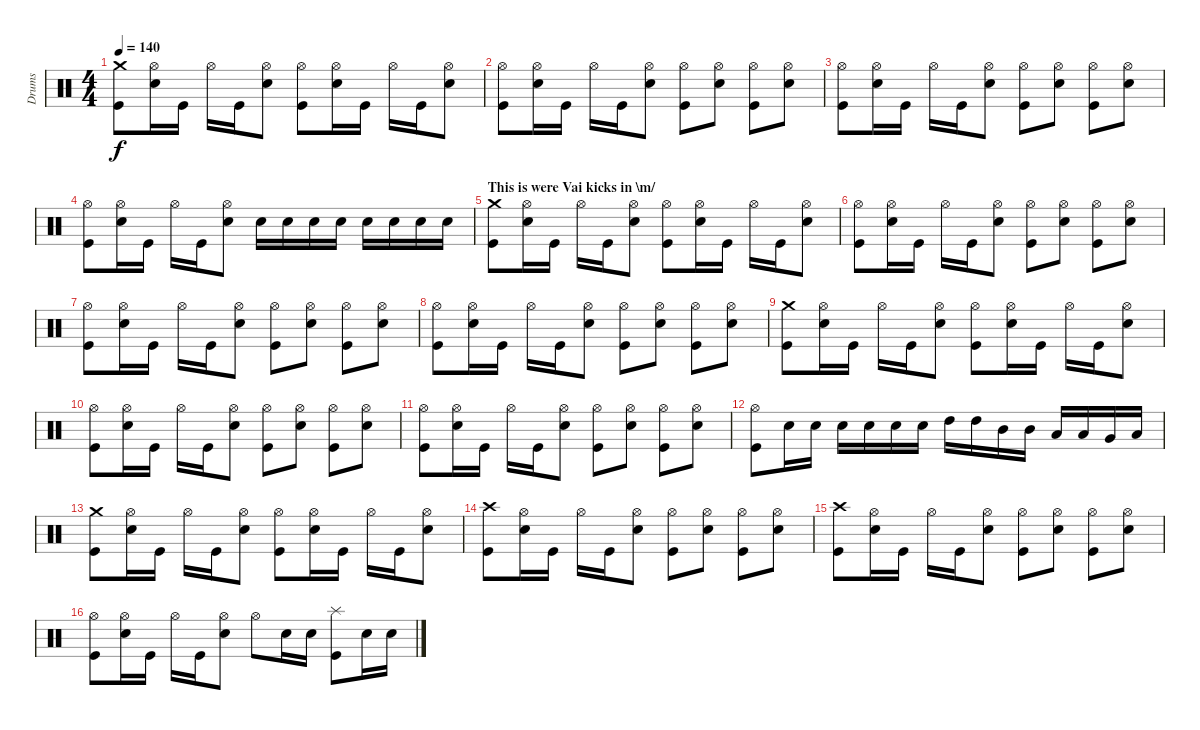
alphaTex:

\track ("Drums" "Drums") {instrument percussion}
\staff {score}
\articulation defaults
\ts (4 4)
\tempo 140
\clef neutral
\ks c
("Crash medium (hit)" "Kick (hit)").8{dy f} ("Hi-Hat (open)" "Snare (hit) 2").16 "Kick (hit)".16 "Hi-Hat (open)".16 "Kick (hit)".16 ("Hi-Hat (open)" "Snare (hit) 2").8 ("Hi-Hat (open)" "Kick (hit)").8 ("Hi-Hat (open)" "Snare (hit) 2").16 "Kick (hit)".16 "Hi-Hat (open)".16 "Kick (hit)".16 ("Hi-Hat (open)" "Snare (hit) 2").8 |
("Hi-Hat (open)" "Kick (hit)").8 ("Hi-Hat (open)" "Snare (hit) 2").16 "Kick (hit)".16 "Hi-Hat (open)".16 "Kick (hit)".16 ("Hi-Hat (open)" "Snare (hit) 2").8 ("Hi-Hat (open)" "Kick (hit)").8 ("Hi-Hat (open)" "Snare (hit) 2").8 ("Hi-Hat (open)" "Kick (hit)").8 ("Hi-Hat (open)" "Snare (hit) 2").8 |
("Hi-Hat (open)" "Kick (hit)").8 ("Hi-Hat (open)" "Snare (hit) 2").16 "Kick (hit)".16 "Hi-Hat (open)".16 "Kick (hit)".16 ("Hi-Hat (open)" "Snare (hit) 2").8 ("Hi-Hat (open)" "Kick (hit)").8 ("Hi-Hat (open)" "Snare (hit) 2").8 ("Hi-Hat (open)" "Kick (hit)").8 ("Hi-Hat (open)" "Snare (hit) 2").8 |
("Hi-Hat (open)" "Kick (hit)").8 ("Hi-Hat (open)" "Snare (hit) 2").16 "Kick (hit)".16 "Hi-Hat (open)".16 "Kick (hit)".16 ("Hi-Hat (open)" "Snare (hit) 2").8 "Snare (hit) 2".16 "Snare (hit) 2".16 "Snare (hit) 2".16 "Snare (hit) 2".16 "Snare (hit) 2".16 "Snare (hit) 2".16 "Snare (hit) 2".16 "Snare (hit) 2".16 |
\section ("" "This is were Vai kicks in \\m/")
("Crash medium (hit)" "Kick (hit)").8 ("Hi-Hat (open)" "Snare (hit) 2").16 "Kick (hit)".16 "Hi-Hat (open)".16 "Kick (hit)".16 ("Hi-Hat (open)" "Snare (hit) 2").8 ("Hi-Hat (open)" "Kick (hit)").8 ("Hi-Hat (open)" "Snare (hit) 2").16 "Kick (hit)".16 "Hi-Hat (open)".16 "Kick (hit)".16 ("Hi-Hat (open)" "Snare (hit) 2").8 |
("Hi-Hat (open)" "Kick (hit)").8 ("Hi-Hat (open)" "Snare (hit) 2").16 "Kick (hit)".16 "Hi-Hat (open)".16 "Kick (hit)".16 ("Hi-Hat (open)" "Snare (hit) 2").8 ("Hi-Hat (open)" "Kick (hit)").8 ("Hi-Hat (open)" "Snare (hit) 2").8 ("Hi-Hat (open)" "Kick (hit)").8 ("Hi-Hat (open)" "Snare (hit) 2").8 |
("Hi-Hat (open)" "Kick (hit)").8 ("Hi-Hat (open)" "Snare (hit) 2").16 "Kick (hit)".16 "Hi-Hat (open)".16 "Kick (hit)".16 ("Hi-Hat (open)" "Snare (hit) 2").8 ("Hi-Hat (open)" "Kick (hit)").8 ("Hi-Hat (open)" "Snare (hit) 2").8 ("Hi-Hat (open)" "Kick (hit)").8 ("Hi-Hat (open)" "Snare (hit) 2").8 |
("Hi-Hat (open)" "Kick (hit)").8 ("Hi-Hat (open)" "Snare (hit) 2").16 "Kick (hit)".16 "Hi-Hat (open)".16 "Kick (hit)".16 ("Hi-Hat (open)" "Snare (hit) 2").8 ("Hi-Hat (open)" "Kick (hit)").8 ("Hi-Hat (open)" "Snare (hit) 2").8 ("Hi-Hat (open)" "Kick (hit)").8 ("Hi-Hat (open)" "Snare (hit) 2").8 |
("Crash medium (hit)" "Kick (hit)").8 ("Hi-Hat (open)" "Snare (hit) 2").16 "Kick (hit)".16 "Hi-Hat (open)".16 "Kick (hit)".16 ("Hi-Hat (open)" "Snare (hit) 2").8 ("Hi-Hat (open)" "Kick (hit)").8 ("Hi-Hat (open)" "Snare (hit) 2").16 "Kick (hit)".16 "Hi-Hat (open)".16 "Kick (hit)".16 ("Hi-Hat (open)" "Snare (hit) 2").8 |
("Hi-Hat (open)" "Kick (hit)").8 ("Hi-Hat (open)" "Snare (hit) 2").16 "Kick (hit)".16 "Hi-Hat (open)".16 "Kick (hit)".16 ("Hi-Hat (open)" "Snare (hit) 2").8 ("Hi-Hat (open)" "Kick (hit)").8 ("Hi-Hat (open)" "Snare (hit) 2").8 ("Hi-Hat (open)" "Kick (hit)").8 ("Hi-Hat (open)" "Snare (hit) 2").8 |
("Hi-Hat (open)" "Kick (hit)").8 ("Hi-Hat (open)" "Snare (hit) 2").16 "Kick (hit)".16 "Hi-Hat (open)".16 "Kick (hit)".16 ("Hi-Hat (open)" "Snare (hit) 2").8 ("Hi-Hat (open)" "Kick (hit)").8 ("Hi-Hat (open)" "Snare (hit) 2").8 ("Hi-Hat (open)" "Kick (hit)").8 ("Hi-Hat (open)" "Snare (hit) 2").8 |
("Hi-Hat (open)" "Kick (hit)").8 "Snare (hit) 2".16 "Snare (hit) 2".16 "Snare (hit) 2".16 "Snare (hit) 2".16 "Snare (hit) 2".16 "Snare (hit) 2".16 "High Tom (hit)".16 "High Tom (hit)".16 "Mid Tom (hit)".16 "Mid Tom (hit)".16 "Low Tom (hit)".16 "Low Tom (hit)".16 "Very Low Tom (hit)".16 "Low Floor Tom (hit)".16 |
("Crash medium (hit)" "Kick (hit)").8 ("Hi-Hat (open)" "Snare (hit) 2").16 "Kick (hit)".16 "Hi-Hat (open)".16 "Kick (hit)".16 ("Hi-Hat (open)" "Snare (hit) 2").8 ("Hi-Hat (open)" "Kick (hit)").8 ("Hi-Hat (open)" "Snare (hit) 2").16 "Kick (hit)".16 "Hi-Hat (open)".16 "Kick (hit)".16 ("Hi-Hat (open)" "Snare (hit) 2").8 |
("Crash high (hit)" "Kick (hit)").8 ("Hi-Hat (open)" "Snare (hit) 2").16 "Kick (hit)".16 "Hi-Hat (open)".16 "Kick (hit)".16 ("Hi-Hat (open)" "Snare (hit) 2").8 ("Hi-Hat (open)" "Kick (hit)").8 ("Hi-Hat (open)" "Snare (hit) 2").8 ("Hi-Hat (open)" "Kick (hit)").8 ("Hi-Hat (open)" "Snare (hit) 2").8 |
("Crash high (hit)" "Kick (hit)").8 ("Hi-Hat (open)" "Snare (hit) 2").16 "Kick (hit)".16 "Hi-Hat (open)".16 "Kick (hit)".16 ("Hi-Hat (open)" "Snare (hit) 2").8 ("Hi-Hat (open)" "Kick (hit)").8 ("Hi-Hat (open)" "Snare (hit) 2").8 ("Hi-Hat (open)" "Kick (hit)").8 ("Hi-Hat (open)" "Snare (hit) 2").8 |
("Hi-Hat (open)" "Kick (hit)").8 ("Hi-Hat (open)" "Snare (hit) 2").16 "Kick (hit)".16 "Hi-Hat (open)".16 "Kick (hit)".16 ("Hi-Hat (open)" "Snare (hit) 2").8 "Hi-Hat (open)".8 "Snare (hit) 2".16 "Snare (hit) 2".16 ("Splash (hit)" "Kick (hit)").8 "Snare (hit) 2".16 "Snare (hit) 2".16
